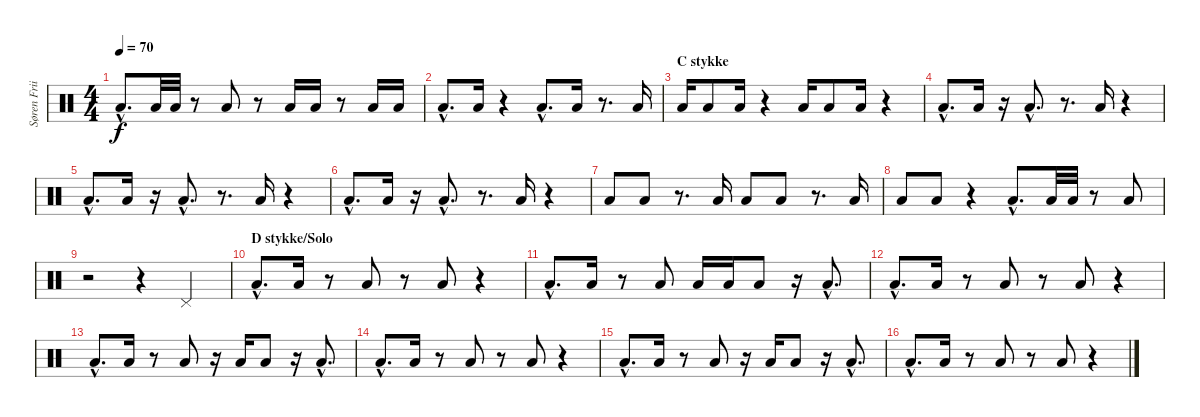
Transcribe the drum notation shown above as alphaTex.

\track ("Søren Friis (Floor Drum)" "Søren Frii") {instrument percussion}
\staff {score}
\articulation defaults
\ts (4 4)
\tempo 70
\clef neutral
\ks c "Low Floor Tom (hit)"{hac}.8{d dy f} "Low Floor Tom (hit)".32 "Low Floor Tom (hit)".32
r.8 "Low Floor Tom (hit)".8 r.8 "Low Floor Tom (hit)".16 "Low Floor Tom (hit)".16 r.8 "Low Floor Tom (hit)".16 "Low Floor Tom (hit)".16 |
"Low Floor Tom (hit)"{hac}.8{d} "Low Floor Tom (hit)".16 r.4 "Low Floor Tom (hit)"{hac}.8{d} "Low Floor Tom (hit)".16 r.8{d} "Low Floor Tom (hit)".16 |
\section ("" "C stykke")
"Low Floor Tom (hit)".16 "Low Floor Tom (hit)".8 "Low Floor Tom (hit)".16 r.4 "Low Floor Tom (hit)".16 "Low Floor Tom (hit)".8 "Low Floor Tom (hit)".16 r.4 |
"Low Floor Tom (hit)"{hac}.8{d} "Low Floor Tom (hit)".16 r.16 "Low Floor Tom (hit)"{hac}.8{d} r.8{d} "Low Floor Tom (hit)".16 r.4 |
"Low Floor Tom (hit)"{hac}.8{d} "Low Floor Tom (hit)".16 r.16 "Low Floor Tom (hit)"{hac}.8{d} r.8{d} "Low Floor Tom (hit)".16 r.4 |
"Low Floor Tom (hit)"{hac}.8{d} "Low Floor Tom (hit)".16 r.16 "Low Floor Tom (hit)"{hac}.8{d} r.8{d} "Low Floor Tom (hit)".16 r.4 |
"Low Floor Tom (hit)".8 "Low Floor Tom (hit)".8 r.8{d} "Low Floor Tom (hit)".16 "Low Floor Tom (hit)".8 "Low Floor Tom (hit)".8 r.8{d} "Low Floor Tom (hit)".16 |
"Low Floor Tom (hit)".8 "Low Floor Tom (hit)".8 r.4 "Low Floor Tom (hit)"{hac}.8{d} "Low Floor Tom (hit)".32 "Low Floor Tom (hit)".32 r.8 "Low Floor Tom (hit)".8 |
r.2 r.4 "Pedal Hi-Hat (hit)".4 |
\section ("" "D stykke/Solo")
"Low Floor Tom (hit)"{hac}.8{d} "Low Floor Tom (hit)".16 r.8 "Low Floor Tom (hit)".8 r.8 "Low Floor Tom (hit)".8 r.4 |
"Low Floor Tom (hit)"{hac}.8{d} "Low Floor Tom (hit)".16 r.8 "Low Floor Tom (hit)".8 "Low Floor Tom (hit)".16 "Low Floor Tom (hit)".16 "Low Floor Tom (hit)".8 r.16 "Low Floor Tom (hit)"{hac}.8{d} |
"Low Floor Tom (hit)"{hac}.8{d} "Low Floor Tom (hit)".16 r.8 "Low Floor Tom (hit)".8 r.8 "Low Floor Tom (hit)".8 r.4 |
"Low Floor Tom (hit)"{hac}.8{d} "Low Floor Tom (hit)".16 r.8 "Low Floor Tom (hit)".8 r.16 "Low Floor Tom (hit)".16 "Low Floor Tom (hit)".8 r.16 "Low Floor Tom (hit)"{hac}.8{d} |
"Low Floor Tom (hit)"{hac}.8{d} "Low Floor Tom (hit)".16 r.8 "Low Floor Tom (hit)".8 r.8 "Low Floor Tom (hit)".8 r.4 |
"Low Floor Tom (hit)"{hac}.8{d} "Low Floor Tom (hit)".16 r.8 "Low Floor Tom (hit)".8 r.16 "Low Floor Tom (hit)".16 "Low Floor Tom (hit)".8 r.16 "Low Floor Tom (hit)"{hac}.8{d} |
"Low Floor Tom (hit)"{hac}.8{d} "Low Floor Tom (hit)".16 r.8 "Low Floor Tom (hit)".8 r.8 "Low Floor Tom (hit)".8 r.4
